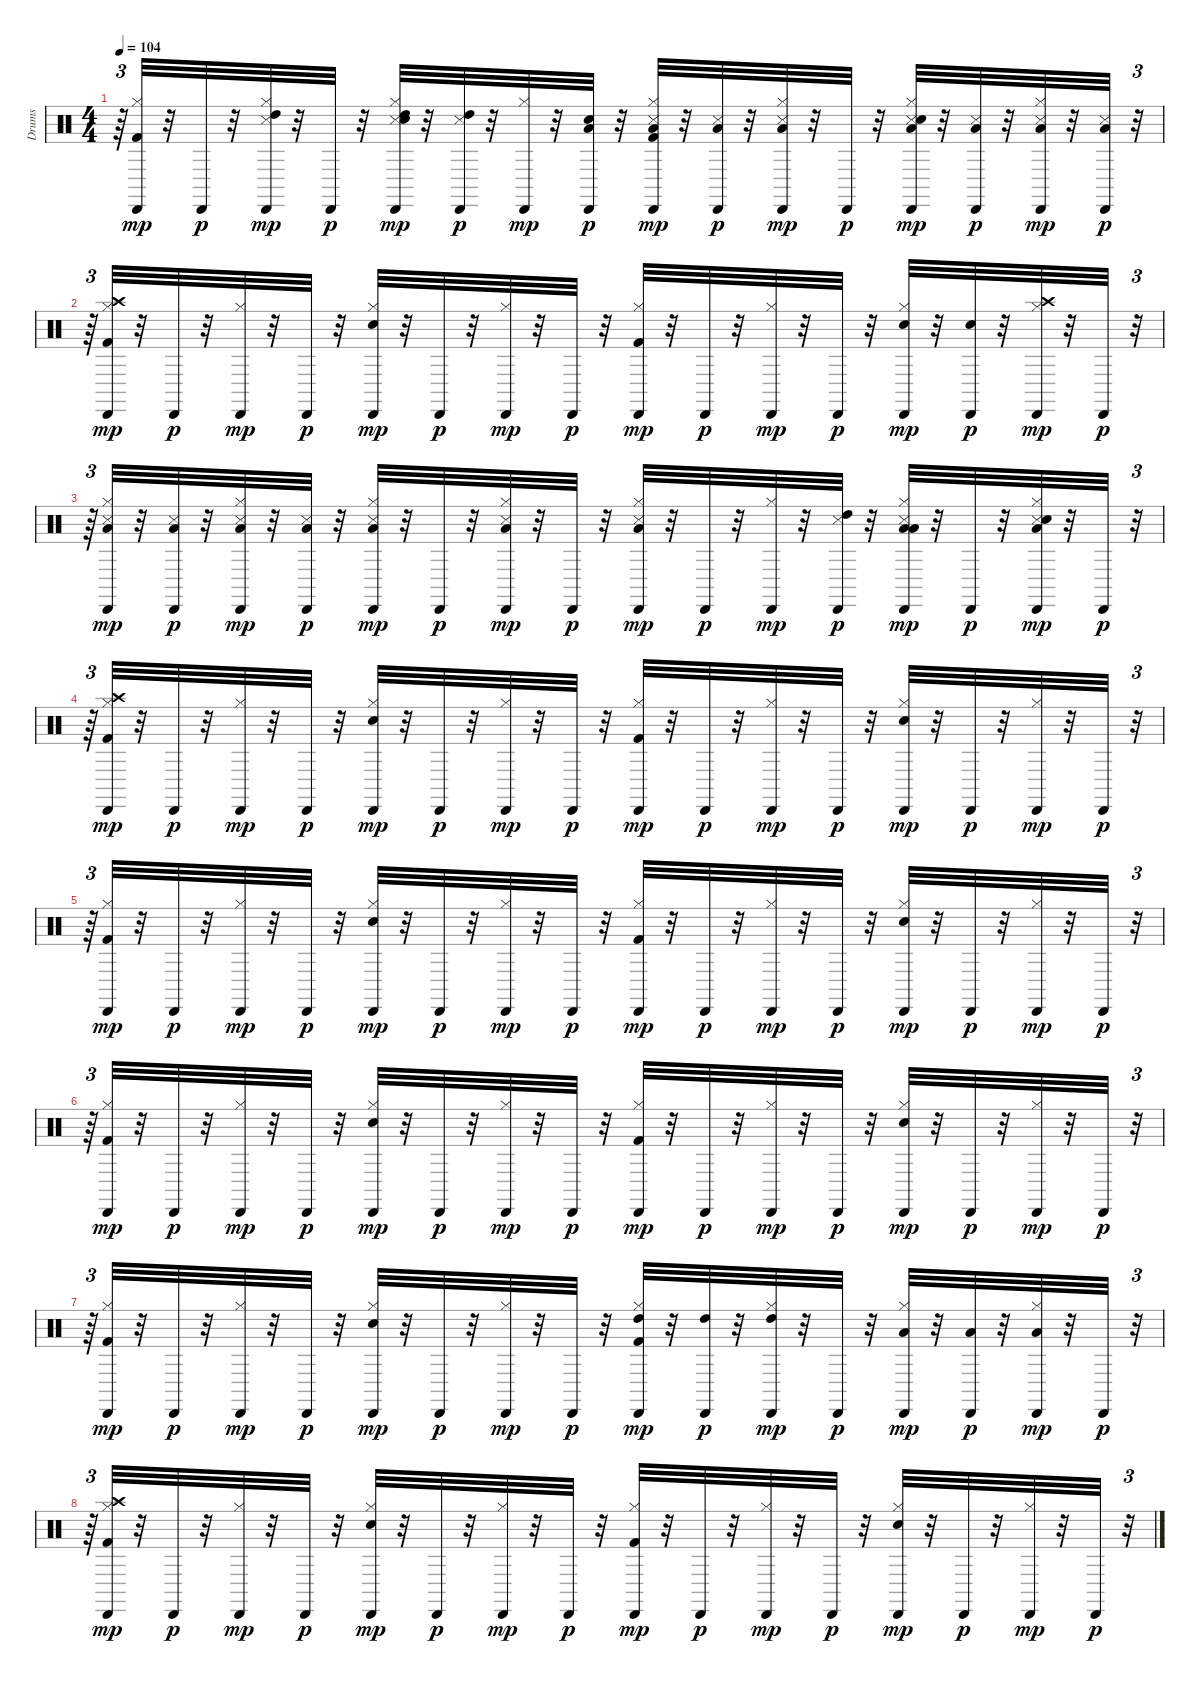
\track ("Drums               " "Drums     ") {instrument percussion}
\staff {score}
\articulation defaults
\ts (4 4)
\tempo 104
\clef neutral
\ks c
r.64{tu (3 2) dy p} ("Kick (hit) 2" "Hi-Hat (closed)" "Cabasa (hit)").32{dy mp} r.32 "Cabasa (hit)".32{dy p} r.32 ("Snare (side stick) 3" "Hi-Hat (closed)" "High Tom (hit)" "Cabasa (hit)").32{dy mp} r.32 "Cabasa (hit)".32{dy p} r.32 ("Snare (side stick) 3" "Snare (hit) 2" "Hi-Hat (closed)" "High Tom (hit)" "Cabasa (hit)").32{dy mp} r.32 ("Snare (side stick) 3" "High Tom (hit)" "Cabasa (hit)").32{dy p} r.32 ("Hi-Hat (closed)" "Cabasa (hit)").32{dy mp} r.32 ("Electric Snare (hit)" "Low Tom (hit)" "Cabasa (hit)").32{dy p} r.32 ("Kick (hit) 2" "Snare (side stick) 3" "Hi-Hat (closed)" "Low Tom (hit)" "Cabasa (hit)").32{dy mp} r.32 ("Snare (side stick) 3" "Low Tom (hit)" "Cabasa (hit)").32{dy p} r.32 ("Snare (side stick) 3" "Hi-Hat (closed)" "Low Tom (hit)" "Cabasa (hit)").32{dy mp} r.32 "Cabasa (hit)".32{dy p} r.32 ("Snare (side stick) 3" "Snare (hit) 2" "Hi-Hat (closed)" "Low Tom (hit)" "Cabasa (hit)").32{dy mp} r.32 ("Snare (side stick) 3" "Low Tom (hit)" "Cabasa (hit)").32{dy p} r.32 ("Snare (side stick) 3" "Low Floor Tom (hit)" "Hi-Hat (closed)" "Cabasa (hit)").32{dy mp} r.32 ("Snare (side stick) 3" "Low Floor Tom (hit)" "Cabasa (hit)").32{dy p} r.32{tu (3 2)} |
r.64{tu (3 2)} ("Kick (hit) 2" "Hi-Hat (closed)" "Crash high (hit)" "Cabasa (hit)").32{dy mp} r.32 "Cabasa (hit)".32{dy p} r.32 ("Hi-Hat (closed)" "Cabasa (hit)").32{dy mp} r.32 "Cabasa (hit)".32{dy p} r.32 ("Snare (hit) 2" "Hi-Hat (closed)" "Cabasa (hit)").32{dy mp} r.32 "Cabasa (hit)".32{dy p} r.32 ("Hi-Hat (closed)" "Cabasa (hit)").32{dy mp} r.32 "Cabasa (hit)".32{dy p} r.32 ("Kick (hit) 2" "Hi-Hat (closed)" "Cabasa (hit)").32{dy mp} r.32 "Cabasa (hit)".32{dy p} r.32 ("Hi-Hat (closed)" "Cabasa (hit)").32{dy mp} r.32 "Cabasa (hit)".32{dy p} r.32 ("Snare (hit) 2" "Hi-Hat (closed)" "Cabasa (hit)").32{dy mp} r.32 ("Snare (hit) 2" "Cabasa (hit)").32{dy p} r.32 ("Hi-Hat (closed)" "Crash high (hit)" "Cabasa (hit)").32{dy mp} r.32 "Cabasa (hit)".32{dy p} r.32{tu (3 2)} |
r.64{tu (3 2)} ("Snare (side stick) 3" "Hi-Hat (closed)" "Low Tom (hit)" "Cabasa (hit)").32{dy mp} r.32 ("Snare (side stick) 3" "Low Tom (hit)" "Cabasa (hit)").32{dy p} r.32 ("Snare (side stick) 3" "Hi-Hat (closed)" "Low Tom (hit)" "Cabasa (hit)").32{dy mp} r.32 ("Snare (side stick) 3" "Low Tom (hit)" "Cabasa (hit)").32{dy p} r.32 ("Snare (side stick) 3" "Hi-Hat (closed)" "Low Tom (hit)" "Cabasa (hit)").32{dy mp} r.32 "Cabasa (hit)".32{dy p} r.32 ("Snare (side stick) 3" "Hi-Hat (closed)" "Low Tom (hit)" "Cabasa (hit)").32{dy mp} r.32 "Cabasa (hit)".32{dy p} r.32 ("Snare (side stick) 3" "Low Floor Tom (hit)" "Hi-Hat (closed)" "Cabasa (hit)").32{dy mp} r.32 "Cabasa (hit)".32{dy p} r.32 ("Hi-Hat (closed)" "Cabasa (hit)").32{dy mp} r.32 ("Snare (side stick) 3" "High Tom (hit)" "Cabasa (hit)").32{dy p} r.32 ("Snare (side stick) 3" "Low Floor Tom (hit)" "Hi-Hat (closed)" "Low Tom (hit)" "Cabasa (hit)").32{dy mp} r.32 "Cabasa (hit)".32{dy p} r.32 ("Snare (side stick) 3" "Snare (hit) 2" "Low Floor Tom (hit)" "Hi-Hat (closed)" "Cabasa (hit)").32{dy mp} r.32 "Cabasa (hit)".32{dy p} r.32{tu (3 2)} |
r.64{tu (3 2)} ("Kick (hit) 2" "Hi-Hat (closed)" "Crash high (hit)" "Cabasa (hit)").32{dy mp} r.32 "Cabasa (hit)".32{dy p} r.32 ("Hi-Hat (closed)" "Cabasa (hit)").32{dy mp} r.32 "Cabasa (hit)".32{dy p} r.32 ("Snare (hit) 2" "Hi-Hat (closed)" "Cabasa (hit)").32{dy mp} r.32 "Cabasa (hit)".32{dy p} r.32 ("Hi-Hat (closed)" "Cabasa (hit)").32{dy mp} r.32 "Cabasa (hit)".32{dy p} r.32 ("Kick (hit) 2" "Hi-Hat (closed)" "Cabasa (hit)").32{dy mp} r.32 "Cabasa (hit)".32{dy p} r.32 ("Hi-Hat (closed)" "Cabasa (hit)").32{dy mp} r.32 "Cabasa (hit)".32{dy p} r.32 ("Snare (hit) 2" "Hi-Hat (closed)" "Cabasa (hit)").32{dy mp} r.32 "Cabasa (hit)".32{dy p} r.32 ("Hi-Hat (closed)" "Cabasa (hit)").32{dy mp} r.32 "Cabasa (hit)".32{dy p} r.32{tu (3 2)} |
r.64{tu (3 2)} ("Kick (hit) 2" "Hi-Hat (closed)" "Cabasa (hit)").32{dy mp} r.32 "Cabasa (hit)".32{dy p} r.32 ("Hi-Hat (closed)" "Cabasa (hit)").32{dy mp} r.32 "Cabasa (hit)".32{dy p} r.32 ("Snare (hit) 2" "Hi-Hat (closed)" "Cabasa (hit)").32{dy mp} r.32 "Cabasa (hit)".32{dy p} r.32 ("Hi-Hat (closed)" "Cabasa (hit)").32{dy mp} r.32 "Cabasa (hit)".32{dy p} r.32 ("Kick (hit) 2" "Hi-Hat (closed)" "Cabasa (hit)").32{dy mp} r.32 "Cabasa (hit)".32{dy p} r.32 ("Hi-Hat (closed)" "Cabasa (hit)").32{dy mp} r.32 "Cabasa (hit)".32{dy p} r.32 ("Snare (hit) 2" "Hi-Hat (closed)" "Cabasa (hit)").32{dy mp} r.32 "Cabasa (hit)".32{dy p} r.32 ("Hi-Hat (closed)" "Cabasa (hit)").32{dy mp} r.32 "Cabasa (hit)".32{dy p} r.32{tu (3 2)} |
r.64{tu (3 2)} ("Kick (hit) 2" "Hi-Hat (closed)" "Cabasa (hit)").32{dy mp} r.32 "Cabasa (hit)".32{dy p} r.32 ("Hi-Hat (closed)" "Cabasa (hit)").32{dy mp} r.32 "Cabasa (hit)".32{dy p} r.32 ("Snare (hit) 2" "Hi-Hat (closed)" "Cabasa (hit)").32{dy mp} r.32 "Cabasa (hit)".32{dy p} r.32 ("Hi-Hat (closed)" "Cabasa (hit)").32{dy mp} r.32 "Cabasa (hit)".32{dy p} r.32 ("Kick (hit) 2" "Hi-Hat (closed)" "Cabasa (hit)").32{dy mp} r.32 "Cabasa (hit)".32{dy p} r.32 ("Hi-Hat (closed)" "Cabasa (hit)").32{dy mp} r.32 "Cabasa (hit)".32{dy p} r.32 ("Snare (hit) 2" "Hi-Hat (closed)" "Cabasa (hit)").32{dy mp} r.32 "Cabasa (hit)".32{dy p} r.32 ("Hi-Hat (closed)" "Cabasa (hit)").32{dy mp} r.32 "Cabasa (hit)".32{dy p} r.32{tu (3 2)} |
r.64{tu (3 2)} ("Kick (hit) 2" "Hi-Hat (closed)" "Cabasa (hit)").32{dy mp} r.32 "Cabasa (hit)".32{dy p} r.32 ("Hi-Hat (closed)" "Cabasa (hit)").32{dy mp} r.32 "Cabasa (hit)".32{dy p} r.32 ("Snare (hit) 2" "Hi-Hat (closed)" "Cabasa (hit)").32{dy mp} r.32 "Cabasa (hit)".32{dy p} r.32 ("Hi-Hat (closed)" "Cabasa (hit)").32{dy mp} r.32 "Cabasa (hit)".32{dy p} r.32 ("Kick (hit) 2" "Hi-Hat (closed)" "High Tom (hit)" "Cabasa (hit)").32{dy mp} r.32 ("High Tom (hit)" "Cabasa (hit)").32{dy p} r.32 ("Hi-Hat (closed)" "High Tom (hit)" "Cabasa (hit)").32{dy mp} r.32 "Cabasa (hit)".32{dy p} r.32 ("Hi-Hat (closed)" "Low Tom (hit)" "Cabasa (hit)").32{dy mp} r.32 ("Low Tom (hit)" "Cabasa (hit)").32{dy p} r.32 ("Hi-Hat (closed)" "Low Tom (hit)" "Cabasa (hit)").32{dy mp} r.32 "Cabasa (hit)".32{dy p} r.32{tu (3 2)} |
r.64{tu (3 2)} ("Kick (hit) 2" "Hi-Hat (closed)" "Crash high (hit)" "Cabasa (hit)").32{dy mp} r.32 "Cabasa (hit)".32{dy p} r.32 ("Hi-Hat (closed)" "Cabasa (hit)").32{dy mp} r.32 "Cabasa (hit)".32{dy p} r.32 ("Snare (hit) 2" "Hi-Hat (closed)" "Cabasa (hit)").32{dy mp} r.32 "Cabasa (hit)".32{dy p} r.32 ("Hi-Hat (closed)" "Cabasa (hit)").32{dy mp} r.32 "Cabasa (hit)".32{dy p} r.32 ("Kick (hit) 2" "Hi-Hat (closed)" "Cabasa (hit)").32{dy mp} r.32 "Cabasa (hit)".32{dy p} r.32 ("Hi-Hat (closed)" "Cabasa (hit)").32{dy mp} r.32 "Cabasa (hit)".32{dy p} r.32 ("Snare (hit) 2" "Hi-Hat (closed)" "Cabasa (hit)").32{dy mp} r.32 "Cabasa (hit)".32{dy p} r.32 ("Hi-Hat (closed)" "Cabasa (hit)").32{dy mp} r.32 "Cabasa (hit)".32{dy p} r.32{tu (3 2)}
